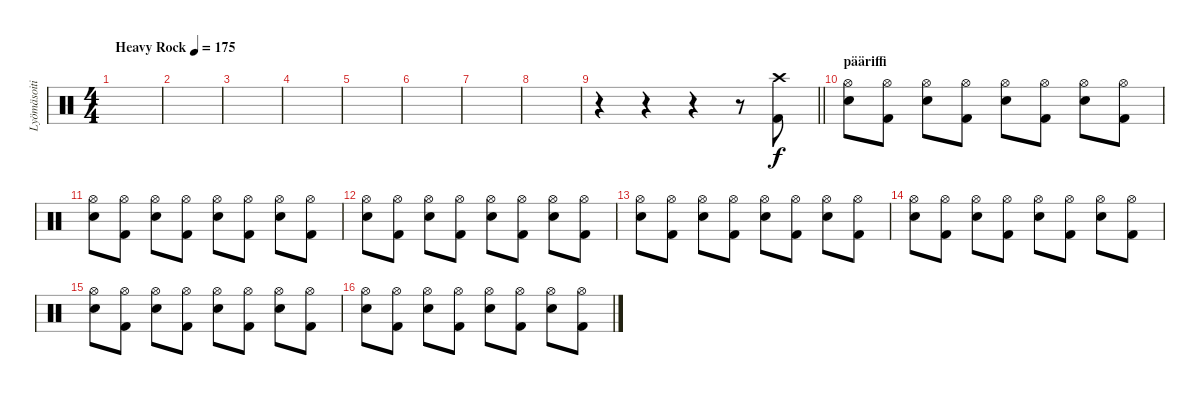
\track ("Lyömäsoitin" "Lyömäsoiti") {instrument percussion}
\staff {score}
\articulation defaults
\ts (4 4)
\tempo (175 "Heavy Rock")
\clef neutral
\ks c
|
|
|
|
|
|
|
|
\barLineRight lightlight
r.4 r.4 r.4 r.8 ("Crash high (hit)" "Kick (hit) 2").8 |
\section ("" "pääriffi")
("Hi-Hat (open)" "Electric Snare (hit)").8 ("Hi-Hat (open)" "Kick (hit) 2").8 ("Hi-Hat (open)" "Electric Snare (hit)").8 ("Hi-Hat (open)" "Kick (hit) 2").8 ("Hi-Hat (open)" "Electric Snare (hit)").8 ("Hi-Hat (open)" "Kick (hit) 2").8 ("Hi-Hat (open)" "Electric Snare (hit)").8 ("Hi-Hat (open)" "Kick (hit) 2").8 |
("Hi-Hat (open)" "Electric Snare (hit)").8 ("Hi-Hat (open)" "Kick (hit) 2").8 ("Hi-Hat (open)" "Electric Snare (hit)").8 ("Hi-Hat (open)" "Kick (hit) 2").8 ("Hi-Hat (open)" "Electric Snare (hit)").8 ("Hi-Hat (open)" "Kick (hit) 2").8 ("Hi-Hat (open)" "Electric Snare (hit)").8 ("Hi-Hat (open)" "Kick (hit) 2").8 |
("Hi-Hat (open)" "Electric Snare (hit)").8 ("Hi-Hat (open)" "Kick (hit) 2").8 ("Hi-Hat (open)" "Electric Snare (hit)").8 ("Hi-Hat (open)" "Kick (hit) 2").8 ("Hi-Hat (open)" "Electric Snare (hit)").8 ("Hi-Hat (open)" "Kick (hit) 2").8 ("Hi-Hat (open)" "Electric Snare (hit)").8 ("Hi-Hat (open)" "Kick (hit) 2").8 |
("Hi-Hat (open)" "Electric Snare (hit)").8 ("Hi-Hat (open)" "Kick (hit) 2").8 ("Hi-Hat (open)" "Electric Snare (hit)").8 ("Hi-Hat (open)" "Kick (hit) 2").8 ("Hi-Hat (open)" "Electric Snare (hit)").8 ("Hi-Hat (open)" "Kick (hit) 2").8 ("Hi-Hat (open)" "Electric Snare (hit)").8 ("Hi-Hat (open)" "Kick (hit) 2").8 |
("Hi-Hat (open)" "Electric Snare (hit)").8 ("Hi-Hat (open)" "Kick (hit) 2").8 ("Hi-Hat (open)" "Electric Snare (hit)").8 ("Hi-Hat (open)" "Kick (hit) 2").8 ("Hi-Hat (open)" "Electric Snare (hit)").8 ("Hi-Hat (open)" "Kick (hit) 2").8 ("Hi-Hat (open)" "Electric Snare (hit)").8 ("Hi-Hat (open)" "Kick (hit) 2").8 |
("Hi-Hat (open)" "Electric Snare (hit)").8 ("Hi-Hat (open)" "Kick (hit) 2").8 ("Hi-Hat (open)" "Electric Snare (hit)").8 ("Hi-Hat (open)" "Kick (hit) 2").8 ("Hi-Hat (open)" "Electric Snare (hit)").8 ("Hi-Hat (open)" "Kick (hit) 2").8 ("Hi-Hat (open)" "Electric Snare (hit)").8 ("Hi-Hat (open)" "Kick (hit) 2").8 |
("Hi-Hat (open)" "Electric Snare (hit)").8 ("Hi-Hat (open)" "Kick (hit) 2").8 ("Hi-Hat (open)" "Electric Snare (hit)").8 ("Hi-Hat (open)" "Kick (hit) 2").8 ("Hi-Hat (open)" "Electric Snare (hit)").8 ("Hi-Hat (open)" "Kick (hit) 2").8 ("Hi-Hat (open)" "Electric Snare (hit)").8 ("Hi-Hat (open)" "Kick (hit) 2").8
